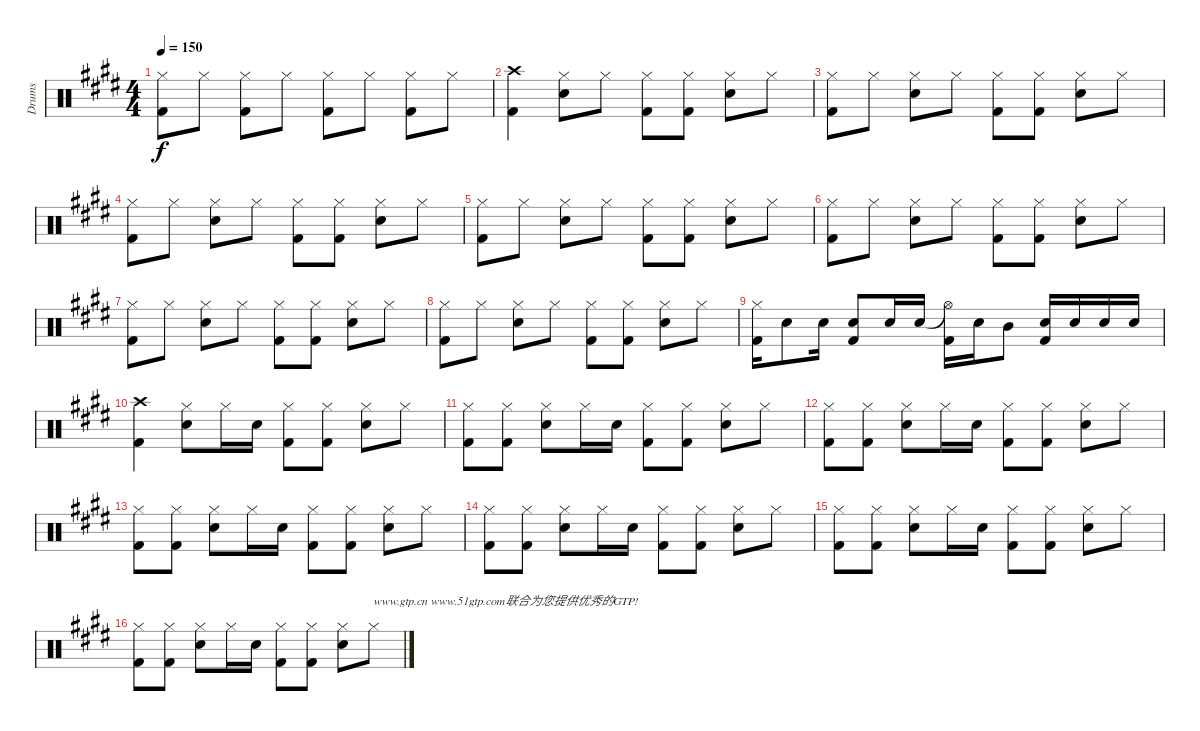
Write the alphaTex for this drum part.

\track ("Drums" "Drums") {instrument percussion}
\staff {score}
\articulation defaults
\ts (4 4)
\tempo 150
\clef neutral
\ks e
("Hi-Hat (closed)" "Kick (hit) 2").8{dy f} "Hi-Hat (closed)".8 ("Hi-Hat (closed)" "Kick (hit) 2").8 "Hi-Hat (closed)".8 ("Hi-Hat (closed)" "Kick (hit) 2").8 "Hi-Hat (closed)".8 ("Hi-Hat (closed)" "Kick (hit) 2").8 "Hi-Hat (closed)".8 |
("Crash high (hit)" "Kick (hit) 2").4 ("Hi-Hat (closed)" "Snare (hit) 2").8 "Hi-Hat (closed)".8 ("Hi-Hat (closed)" "Kick (hit) 2").8 ("Hi-Hat (closed)" "Kick (hit) 2").8 ("Hi-Hat (closed)" "Snare (hit) 2").8 "Hi-Hat (closed)".8 |
("Hi-Hat (closed)" "Kick (hit) 2").8 "Hi-Hat (closed)".8 ("Hi-Hat (closed)" "Snare (hit) 2").8 "Hi-Hat (closed)".8 ("Hi-Hat (closed)" "Kick (hit) 2").8 ("Hi-Hat (closed)" "Kick (hit) 2").8 ("Hi-Hat (closed)" "Snare (hit) 2").8 "Hi-Hat (closed)".8 |
("Hi-Hat (closed)" "Kick (hit) 2").8 "Hi-Hat (closed)".8 ("Hi-Hat (closed)" "Snare (hit) 2").8 "Hi-Hat (closed)".8 ("Hi-Hat (closed)" "Kick (hit) 2").8 ("Hi-Hat (closed)" "Kick (hit) 2").8 ("Hi-Hat (closed)" "Snare (hit) 2").8 "Hi-Hat (closed)".8 |
("Hi-Hat (closed)" "Kick (hit) 2").8 "Hi-Hat (closed)".8 ("Hi-Hat (closed)" "Snare (hit) 2").8 "Hi-Hat (closed)".8 ("Hi-Hat (closed)" "Kick (hit) 2").8 ("Hi-Hat (closed)" "Kick (hit) 2").8 ("Hi-Hat (closed)" "Snare (hit) 2").8 "Hi-Hat (closed)".8 |
("Hi-Hat (closed)" "Kick (hit) 2").8 "Hi-Hat (closed)".8 ("Hi-Hat (closed)" "Snare (hit) 2").8 "Hi-Hat (closed)".8 ("Hi-Hat (closed)" "Kick (hit) 2").8 ("Hi-Hat (closed)" "Kick (hit) 2").8 ("Hi-Hat (closed)" "Snare (hit) 2").8 "Hi-Hat (closed)".8 |
("Hi-Hat (closed)" "Kick (hit) 2").8 "Hi-Hat (closed)".8 ("Hi-Hat (closed)" "Snare (hit) 2").8 "Hi-Hat (closed)".8 ("Hi-Hat (closed)" "Kick (hit) 2").8 ("Hi-Hat (closed)" "Kick (hit) 2").8 ("Hi-Hat (closed)" "Snare (hit) 2").8 "Hi-Hat (closed)".8 |
("Hi-Hat (closed)" "Kick (hit) 2").8 "Hi-Hat (closed)".8 ("Hi-Hat (closed)" "Snare (hit) 2").8 "Hi-Hat (closed)".8 ("Hi-Hat (closed)" "Kick (hit) 2").8 ("Hi-Hat (closed)" "Kick (hit) 2").8 ("Hi-Hat (closed)" "Snare (hit) 2").8 "Hi-Hat (closed)".8 |
("Hi-Hat (closed)" "Kick (hit) 2").16 "Snare (hit) 2".8 "Snare (hit) 2".16 ("Snare (hit) 2" "Kick (hit) 2").8 "Snare (hit) 2".16 "Snare (hit) 2".16 ("Hi-Hat (open)"{t} "Kick (hit) 2").16 "Snare (hit) 2".16 "Mid Tom (hit)".8 ("Snare (hit) 2" "Kick (hit) 2").16 "Snare (hit) 2".16 "Snare (hit) 2".16 "Snare (hit) 2".16 |
("Crash high (hit)" "Kick (hit) 2").4 ("Hi-Hat (closed)" "Snare (hit) 2").8 "Hi-Hat (closed)".16 "Snare (hit) 2".16 ("Hi-Hat (closed)" "Kick (hit) 2").8 ("Hi-Hat (closed)" "Kick (hit) 2").8 ("Hi-Hat (closed)" "Snare (hit) 2").8 "Hi-Hat (closed)".8 |
("Hi-Hat (closed)" "Kick (hit) 2").8 ("Hi-Hat (closed)" "Kick (hit) 2").8 ("Hi-Hat (closed)" "Snare (hit) 2").8 "Hi-Hat (closed)".16 "Snare (hit) 2".16 ("Hi-Hat (closed)" "Kick (hit) 2").8 ("Hi-Hat (closed)" "Kick (hit) 2").8 ("Hi-Hat (closed)" "Snare (hit) 2").8 "Hi-Hat (closed)".8 |
("Hi-Hat (closed)" "Kick (hit) 2").8 ("Hi-Hat (closed)" "Kick (hit) 2").8 ("Hi-Hat (closed)" "Snare (hit) 2").8 "Hi-Hat (closed)".16 "Snare (hit) 2".16 ("Hi-Hat (closed)" "Kick (hit) 2").8 ("Hi-Hat (closed)" "Kick (hit) 2").8 ("Hi-Hat (closed)" "Snare (hit) 2").8 "Hi-Hat (closed)".8 |
("Hi-Hat (closed)" "Kick (hit) 2").8 ("Hi-Hat (closed)" "Kick (hit) 2").8 ("Hi-Hat (closed)" "Snare (hit) 2").8 "Hi-Hat (closed)".16 "Snare (hit) 2".16 ("Hi-Hat (closed)" "Kick (hit) 2").8 ("Hi-Hat (closed)" "Kick (hit) 2").8 ("Hi-Hat (closed)" "Snare (hit) 2").8 "Hi-Hat (closed)".8 |
("Hi-Hat (closed)" "Kick (hit) 2").8 ("Hi-Hat (closed)" "Kick (hit) 2").8 ("Hi-Hat (closed)" "Snare (hit) 2").8 "Hi-Hat (closed)".16 "Snare (hit) 2".16 ("Hi-Hat (closed)" "Kick (hit) 2").8 ("Hi-Hat (closed)" "Kick (hit) 2").8 ("Hi-Hat (closed)" "Snare (hit) 2").8 "Hi-Hat (closed)".8 |
("Hi-Hat (closed)" "Kick (hit) 2").8 ("Hi-Hat (closed)" "Kick (hit) 2").8 ("Hi-Hat (closed)" "Snare (hit) 2").8 "Hi-Hat (closed)".16 "Snare (hit) 2".16 ("Hi-Hat (closed)" "Kick (hit) 2").8 ("Hi-Hat (closed)" "Kick (hit) 2").8 ("Hi-Hat (closed)" "Snare (hit) 2").8 "Hi-Hat (closed)".8 |
("Hi-Hat (closed)" "Kick (hit) 2").8 ("Hi-Hat (closed)" "Kick (hit) 2").8 ("Hi-Hat (closed)" "Snare (hit) 2").8 "Hi-Hat (closed)".16 "Snare (hit) 2".16 ("Hi-Hat (closed)" "Kick (hit) 2").8 ("Hi-Hat (closed)" "Kick (hit) 2").8 ("Hi-Hat (closed)" "Snare (hit) 2").8 "Hi-Hat (closed)".8{txt "www.gtp.cn www.51gtp.com联合为您提供优秀的GTP!"}
